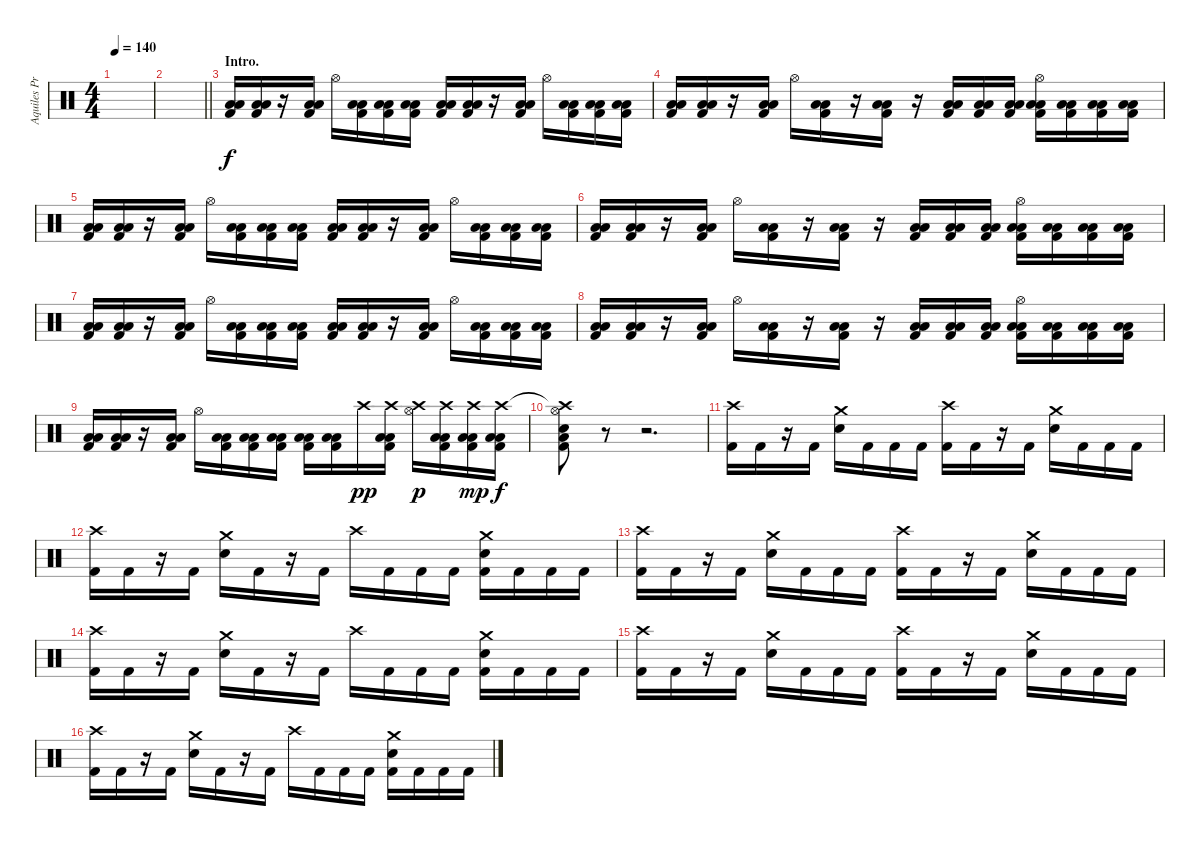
\track ("Aquiles Priester" "Aquiles Pr") {instrument percussion}
\staff {score}
\articulation defaults
\ts (4 4)
\tempo 140
\clef neutral
\ks c
|
\barLineRight lightlight
|
\section ("" "Intro.")
("Low Floor Tom (hit)" "Low Tom (hit)" "Kick (hit) 2").16 ("Low Floor Tom (hit)" "Low Tom (hit)" "Kick (hit) 2").16 r.16 ("Low Floor Tom (hit)" "Low Tom (hit)" "Kick (hit) 2").16 "Hi-Hat (open)".16 ("Low Floor Tom (hit)" "Low Tom (hit)" "Kick (hit) 2").16 ("Low Floor Tom (hit)" "Low Tom (hit)" "Kick (hit) 2").16 ("Low Floor Tom (hit)" "Low Tom (hit)" "Kick (hit) 2").16 ("Low Floor Tom (hit)" "Low Tom (hit)" "Kick (hit) 2").16 ("Low Floor Tom (hit)" "Low Tom (hit)" "Kick (hit) 2").16 r.16 ("Low Floor Tom (hit)" "Low Tom (hit)" "Kick (hit) 2").16 "Hi-Hat (open)".16 ("Low Floor Tom (hit)" "Low Tom (hit)" "Kick (hit) 2").16 ("Low Floor Tom (hit)" "Low Tom (hit)" "Kick (hit) 2").16 ("Low Floor Tom (hit)" "Low Tom (hit)" "Kick (hit) 2").16 |
("Low Floor Tom (hit)" "Low Tom (hit)" "Kick (hit) 2").16 ("Low Floor Tom (hit)" "Low Tom (hit)" "Kick (hit) 2").16 r.16 ("Low Floor Tom (hit)" "Low Tom (hit)" "Kick (hit) 2").16 "Hi-Hat (open)".16 ("Low Floor Tom (hit)" "Low Tom (hit)" "Kick (hit) 2").16 r.16 ("Low Floor Tom (hit)" "Low Tom (hit)" "Kick (hit) 2").16 r.16 ("Low Floor Tom (hit)" "Low Tom (hit)" "Kick (hit) 2").16 ("Low Floor Tom (hit)" "Low Tom (hit)" "Kick (hit) 2").16 ("Low Floor Tom (hit)" "Low Tom (hit)" "Kick (hit) 2").16 ("Hi-Hat (open)" "Low Floor Tom (hit)" "Low Tom (hit)" "Kick (hit) 2").16 ("Low Floor Tom (hit)" "Low Tom (hit)" "Kick (hit) 2").16 ("Low Floor Tom (hit)" "Low Tom (hit)" "Kick (hit) 2").16 ("Low Floor Tom (hit)" "Low Tom (hit)" "Kick (hit) 2").16 |
("Low Floor Tom (hit)" "Low Tom (hit)" "Kick (hit) 2").16 ("Low Floor Tom (hit)" "Low Tom (hit)" "Kick (hit) 2").16 r.16 ("Low Floor Tom (hit)" "Low Tom (hit)" "Kick (hit) 2").16 "Hi-Hat (open)".16 ("Low Floor Tom (hit)" "Low Tom (hit)" "Kick (hit) 2").16 ("Low Floor Tom (hit)" "Low Tom (hit)" "Kick (hit) 2").16 ("Low Floor Tom (hit)" "Low Tom (hit)" "Kick (hit) 2").16 ("Low Floor Tom (hit)" "Low Tom (hit)" "Kick (hit) 2").16 ("Low Floor Tom (hit)" "Low Tom (hit)" "Kick (hit) 2").16 r.16 ("Low Floor Tom (hit)" "Low Tom (hit)" "Kick (hit) 2").16 "Hi-Hat (open)".16 ("Low Floor Tom (hit)" "Low Tom (hit)" "Kick (hit) 2").16 ("Low Floor Tom (hit)" "Low Tom (hit)" "Kick (hit) 2").16 ("Low Floor Tom (hit)" "Low Tom (hit)" "Kick (hit) 2").16 |
("Low Floor Tom (hit)" "Low Tom (hit)" "Kick (hit) 2").16 ("Low Floor Tom (hit)" "Low Tom (hit)" "Kick (hit) 2").16 r.16 ("Low Floor Tom (hit)" "Low Tom (hit)" "Kick (hit) 2").16 "Hi-Hat (open)".16 ("Low Floor Tom (hit)" "Low Tom (hit)" "Kick (hit) 2").16 r.16 ("Low Floor Tom (hit)" "Low Tom (hit)" "Kick (hit) 2").16 r.16 ("Low Floor Tom (hit)" "Low Tom (hit)" "Kick (hit) 2").16 ("Low Floor Tom (hit)" "Low Tom (hit)" "Kick (hit) 2").16 ("Low Floor Tom (hit)" "Low Tom (hit)" "Kick (hit) 2").16 ("Hi-Hat (open)" "Low Floor Tom (hit)" "Low Tom (hit)" "Kick (hit) 2").16 ("Low Floor Tom (hit)" "Low Tom (hit)" "Kick (hit) 2").16 ("Low Floor Tom (hit)" "Low Tom (hit)" "Kick (hit) 2").16 ("Low Floor Tom (hit)" "Low Tom (hit)" "Kick (hit) 2").16 |
("Low Floor Tom (hit)" "Low Tom (hit)" "Kick (hit) 2").16 ("Low Floor Tom (hit)" "Low Tom (hit)" "Kick (hit) 2").16 r.16 ("Low Floor Tom (hit)" "Low Tom (hit)" "Kick (hit) 2").16 "Hi-Hat (open)".16 ("Low Floor Tom (hit)" "Low Tom (hit)" "Kick (hit) 2").16 ("Low Floor Tom (hit)" "Low Tom (hit)" "Kick (hit) 2").16 ("Low Floor Tom (hit)" "Low Tom (hit)" "Kick (hit) 2").16 ("Low Floor Tom (hit)" "Low Tom (hit)" "Kick (hit) 2").16 ("Low Floor Tom (hit)" "Low Tom (hit)" "Kick (hit) 2").16 r.16 ("Low Floor Tom (hit)" "Low Tom (hit)" "Kick (hit) 2").16 "Hi-Hat (open)".16 ("Low Floor Tom (hit)" "Low Tom (hit)" "Kick (hit) 2").16 ("Low Floor Tom (hit)" "Low Tom (hit)" "Kick (hit) 2").16 ("Low Floor Tom (hit)" "Low Tom (hit)" "Kick (hit) 2").16 |
("Low Floor Tom (hit)" "Low Tom (hit)" "Kick (hit) 2").16 ("Low Floor Tom (hit)" "Low Tom (hit)" "Kick (hit) 2").16 r.16 ("Low Floor Tom (hit)" "Low Tom (hit)" "Kick (hit) 2").16 "Hi-Hat (open)".16 ("Low Floor Tom (hit)" "Low Tom (hit)" "Kick (hit) 2").16 r.16 ("Low Floor Tom (hit)" "Low Tom (hit)" "Kick (hit) 2").16 r.16 ("Low Floor Tom (hit)" "Low Tom (hit)" "Kick (hit) 2").16 ("Low Floor Tom (hit)" "Low Tom (hit)" "Kick (hit) 2").16 ("Low Floor Tom (hit)" "Low Tom (hit)" "Kick (hit) 2").16 ("Hi-Hat (open)" "Low Floor Tom (hit)" "Low Tom (hit)" "Kick (hit) 2").16 ("Low Floor Tom (hit)" "Low Tom (hit)" "Kick (hit) 2").16 ("Low Floor Tom (hit)" "Low Tom (hit)" "Kick (hit) 2").16 ("Low Floor Tom (hit)" "Low Tom (hit)" "Kick (hit) 2").16 |
("Low Floor Tom (hit)" "Low Tom (hit)" "Kick (hit) 2").16 ("Low Floor Tom (hit)" "Low Tom (hit)" "Kick (hit) 2").16 r.16 ("Low Floor Tom (hit)" "Low Tom (hit)" "Kick (hit) 2").16 "Hi-Hat (open)".16 ("Low Floor Tom (hit)" "Low Tom (hit)" "Kick (hit) 2").16 ("Low Floor Tom (hit)" "Low Tom (hit)" "Kick (hit) 2").16 ("Low Floor Tom (hit)" "Low Tom (hit)" "Kick (hit) 2").16 ("Low Floor Tom (hit)" "Low Tom (hit)" "Kick (hit) 2").16 ("Low Floor Tom (hit)" "Low Tom (hit)" "Kick (hit) 2").16 "Crash high (hit)".16{dy pp} ("Crash high (hit)" "Low Floor Tom (hit)" "Low Tom (hit)" "Kick (hit) 2").16 ("Crash high (hit)" "Hi-Hat (open)").16{dy p} ("Crash high (hit)" "Low Floor Tom (hit)" "Low Tom (hit)" "Kick (hit) 2").16 ("Crash high (hit)" "Low Floor Tom (hit)" "Low Tom (hit)" "Kick (hit) 2").16{dy mp} ("Crash high (hit)" "Low Floor Tom (hit)" "Low Tom (hit)" "Kick (hit) 2").16{dy f} |
("Crash high (hit)"{t} "Hi-Hat (open)" "Electric Snare (hit)" "Low Floor Tom (hit)" "Kick (hit) 2").8 r.8 r.2{d} |
("Crash high (hit)" "Kick (hit) 2").16 "Kick (hit) 2".16 r.16 "Kick (hit) 2".16 ("Crash medium (hit)" "Electric Snare (hit)").16 "Kick (hit) 2".16 "Kick (hit) 2".16 "Kick (hit) 2".16 ("Crash high (hit)" "Kick (hit) 2").16 "Kick (hit) 2".16 r.16 "Kick (hit) 2".16 ("Crash medium (hit)" "Electric Snare (hit)").16 "Kick (hit) 2".16 "Kick (hit) 2".16 "Kick (hit) 2".16 |
("Crash high (hit)" "Kick (hit) 2").16 "Kick (hit) 2".16 r.16 "Kick (hit) 2".16 ("Crash medium (hit)" "Electric Snare (hit)").16 "Kick (hit) 2".16 r.16 "Kick (hit) 2".16 "Crash high (hit)".16 "Kick (hit) 2".16 "Kick (hit) 2".16 "Kick (hit) 2".16 ("Crash medium (hit)" "Electric Snare (hit)" "Kick (hit) 2").16 "Kick (hit) 2".16 "Kick (hit) 2".16 "Kick (hit) 2".16 |
("Crash high (hit)" "Kick (hit) 2").16 "Kick (hit) 2".16 r.16 "Kick (hit) 2".16 ("Crash medium (hit)" "Electric Snare (hit)").16 "Kick (hit) 2".16 "Kick (hit) 2".16 "Kick (hit) 2".16 ("Crash high (hit)" "Kick (hit) 2").16 "Kick (hit) 2".16 r.16 "Kick (hit) 2".16 ("Crash medium (hit)" "Electric Snare (hit)").16 "Kick (hit) 2".16 "Kick (hit) 2".16 "Kick (hit) 2".16 |
("Crash high (hit)" "Kick (hit) 2").16 "Kick (hit) 2".16 r.16 "Kick (hit) 2".16 ("Crash medium (hit)" "Electric Snare (hit)").16 "Kick (hit) 2".16 r.16 "Kick (hit) 2".16 "Crash high (hit)".16 "Kick (hit) 2".16 "Kick (hit) 2".16 "Kick (hit) 2".16 ("Crash medium (hit)" "Electric Snare (hit)" "Kick (hit) 2").16 "Kick (hit) 2".16 "Kick (hit) 2".16 "Kick (hit) 2".16 |
("Crash high (hit)" "Kick (hit) 2").16 "Kick (hit) 2".16 r.16 "Kick (hit) 2".16 ("Crash medium (hit)" "Electric Snare (hit)").16 "Kick (hit) 2".16 "Kick (hit) 2".16 "Kick (hit) 2".16 ("Crash high (hit)" "Kick (hit) 2").16 "Kick (hit) 2".16 r.16 "Kick (hit) 2".16 ("Crash medium (hit)" "Electric Snare (hit)").16 "Kick (hit) 2".16 "Kick (hit) 2".16 "Kick (hit) 2".16 |
("Crash high (hit)" "Kick (hit) 2").16 "Kick (hit) 2".16 r.16 "Kick (hit) 2".16 ("Crash medium (hit)" "Electric Snare (hit)").16 "Kick (hit) 2".16 r.16 "Kick (hit) 2".16 "Crash high (hit)".16 "Kick (hit) 2".16 "Kick (hit) 2".16 "Kick (hit) 2".16 ("Crash medium (hit)" "Electric Snare (hit)" "Kick (hit) 2").16 "Kick (hit) 2".16 "Kick (hit) 2".16 "Kick (hit) 2".16
